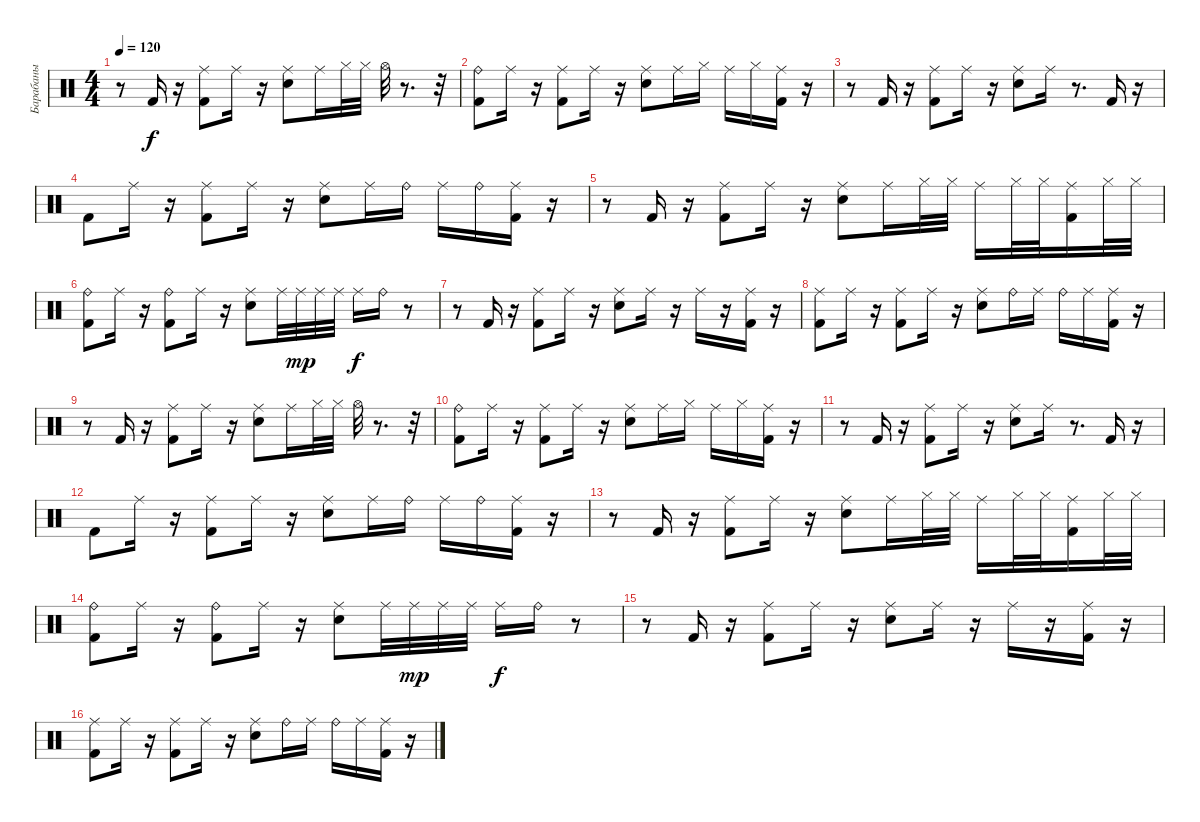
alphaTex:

\track ("Барабаны" "Барабаны") {instrument percussion}
\staff {score}
\articulation defaults
\ts (4 4)
\tempo 120
\clef neutral
\ks c
r.8{dy f} "Kick (hit) 2".16 r.16 ("Kick (hit) 2" "Ride (middle)").8 "Ride (middle)".16 r.16 ("Snare (hit) 2" "Ride (middle)").8 "Ride (middle)".16 "Hi-Hat (closed)".32 "Hi-Hat (closed)".32 "Hi-Hat (open)".32 r.8{d} r.32 |
("Kick (hit) 2" "Ride (bell)").8 "Ride (middle)".16 r.16 ("Kick (hit) 2" "Ride (middle)").8 "Ride (middle)".16 r.16 ("Snare (hit) 2" "Ride (middle)").8 "Ride (middle)".16 "Hi-Hat (closed)".16 "Ride (middle)".16 "Hi-Hat (closed)".16 ("Kick (hit) 2" "Ride (middle)").16 r.16 |
r.8 "Kick (hit) 2".16 r.16 ("Kick (hit) 2" "Ride (middle)").8 "Ride (middle)".16 r.16 ("Snare (hit) 2" "Ride (middle)").8 "Ride (middle)".16 r.8{d} "Kick (hit) 2".16 r.16 |
"Kick (hit) 2".8 "Ride (middle)".16 r.16 ("Kick (hit) 2" "Ride (middle)").8 "Ride (middle)".16 r.16 ("Snare (hit) 2" "Ride (middle)").8 "Ride (middle)".16 "Ride (bell)".16 "Ride (middle)".16 "Ride (bell)".16 ("Kick (hit) 2" "Ride (middle)").16 r.16 |
r.8 "Kick (hit) 2".16 r.16 ("Kick (hit) 2" "Ride (middle)").8 "Ride (middle)".16 r.16 ("Snare (hit) 2" "Ride (middle)").8 "Ride (middle)".16 "Hi-Hat (closed)".32 "Hi-Hat (closed)".32 "Ride (middle)".16 "Hi-Hat (closed)".32 "Hi-Hat (closed)".32 ("Kick (hit) 2" "Ride (middle)").16 "Hi-Hat (closed)".32 "Hi-Hat (closed)".32 |
("Kick (hit) 2" "Ride (bell)").8 "Ride (middle)".16 r.16 ("Kick (hit) 2" "Ride (bell)").8 "Ride (middle)".16 r.16 ("Snare (hit) 2" "Ride (middle)").8 "Ride (middle)".32 "Ride (middle)".32{dy mp} "Ride (middle)".32 "Ride (middle)".32 "Ride (middle)".16{dy f} "Ride (bell)".16 r.8 |
r.8 "Kick (hit) 2".16 r.16 ("Kick (hit) 2" "Ride (middle)").8 "Ride (middle)".16 r.16 ("Snare (hit) 2" "Ride (middle)").8 "Ride (middle)".16 r.16 "Ride (middle)".16 r.16 ("Kick (hit) 2" "Ride (middle)").16 r.16 |
("Kick (hit) 2" "Ride (middle)").8 "Ride (middle)".16 r.16 ("Kick (hit) 2" "Ride (middle)").8 "Ride (middle)".16 r.16 ("Snare (hit) 2" "Ride (middle)").8 "Ride (bell)".16 "Ride (middle)".16 "Ride (bell)".16 "Ride (middle)".16 ("Kick (hit) 2" "Ride (middle)").16 r.16 |
r.8 "Kick (hit) 2".16 r.16 ("Kick (hit) 2" "Ride (middle)").8 "Ride (middle)".16 r.16 ("Snare (hit) 2" "Ride (middle)").8 "Ride (middle)".16 "Hi-Hat (closed)".32 "Hi-Hat (closed)".32 "Hi-Hat (open)".32 r.8{d} r.32 |
("Kick (hit) 2" "Ride (bell)").8 "Ride (middle)".16 r.16 ("Kick (hit) 2" "Ride (middle)").8 "Ride (middle)".16 r.16 ("Snare (hit) 2" "Ride (middle)").8 "Ride (middle)".16 "Hi-Hat (closed)".16 "Ride (middle)".16 "Hi-Hat (closed)".16 ("Kick (hit) 2" "Ride (middle)").16 r.16 |
r.8 "Kick (hit) 2".16 r.16 ("Kick (hit) 2" "Ride (middle)").8 "Ride (middle)".16 r.16 ("Snare (hit) 2" "Ride (middle)").8 "Ride (middle)".16 r.8{d} "Kick (hit) 2".16 r.16 |
"Kick (hit) 2".8 "Ride (middle)".16 r.16 ("Kick (hit) 2" "Ride (middle)").8 "Ride (middle)".16 r.16 ("Snare (hit) 2" "Ride (middle)").8 "Ride (middle)".16 "Ride (bell)".16 "Ride (middle)".16 "Ride (bell)".16 ("Kick (hit) 2" "Ride (middle)").16 r.16 |
r.8 "Kick (hit) 2".16 r.16 ("Kick (hit) 2" "Ride (middle)").8 "Ride (middle)".16 r.16 ("Snare (hit) 2" "Ride (middle)").8 "Ride (middle)".16 "Hi-Hat (closed)".32 "Hi-Hat (closed)".32 "Ride (middle)".16 "Hi-Hat (closed)".32 "Hi-Hat (closed)".32 ("Kick (hit) 2" "Ride (middle)").16 "Hi-Hat (closed)".32 "Hi-Hat (closed)".32 |
("Kick (hit) 2" "Ride (bell)").8 "Ride (middle)".16 r.16 ("Kick (hit) 2" "Ride (bell)").8 "Ride (middle)".16 r.16 ("Snare (hit) 2" "Ride (middle)").8 "Ride (middle)".32 "Ride (middle)".32{dy mp} "Ride (middle)".32 "Ride (middle)".32 "Ride (middle)".16{dy f} "Ride (bell)".16 r.8 |
r.8 "Kick (hit) 2".16 r.16 ("Kick (hit) 2" "Ride (middle)").8 "Ride (middle)".16 r.16 ("Snare (hit) 2" "Ride (middle)").8 "Ride (middle)".16 r.16 "Ride (middle)".16 r.16 ("Kick (hit) 2" "Ride (middle)").16 r.16 |
("Kick (hit) 2" "Ride (middle)").8 "Ride (middle)".16 r.16 ("Kick (hit) 2" "Ride (middle)").8 "Ride (middle)".16 r.16 ("Snare (hit) 2" "Ride (middle)").8 "Ride (bell)".16 "Ride (middle)".16 "Ride (bell)".16 "Ride (middle)".16 ("Kick (hit) 2" "Ride (middle)").16 r.16
